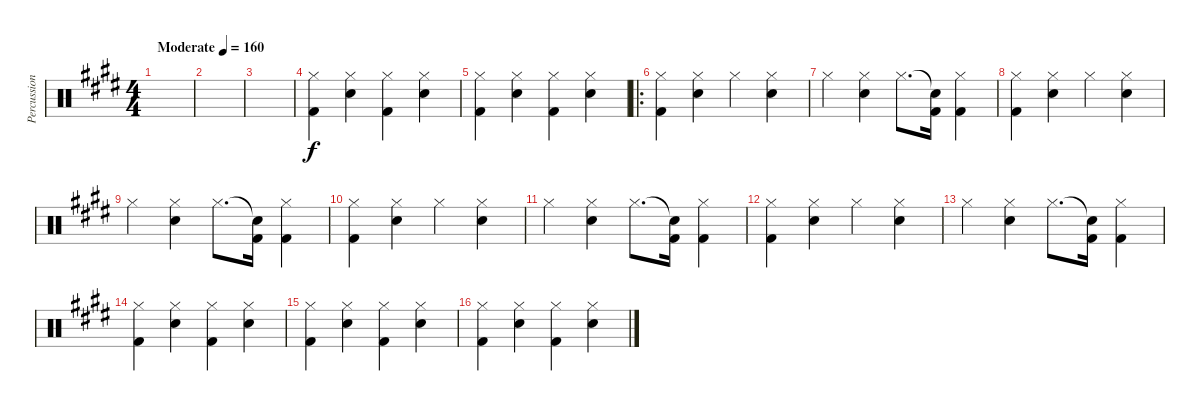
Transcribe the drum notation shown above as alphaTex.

\track ("Percussion" "Percussion") {instrument percussion}
\staff {score}
\articulation defaults
\ts (4 4)
\tempo (160 "Moderate")
\clef neutral
\ks e
|
|
|
("Hi-Hat (closed)" "Kick (hit) 2").4 ("Hi-Hat (closed)" "Snare (hit) 2").4 ("Hi-Hat (closed)" "Kick (hit) 2").4 ("Hi-Hat (closed)" "Snare (hit) 2").4 |
("Hi-Hat (closed)" "Kick (hit) 2").4 ("Hi-Hat (closed)" "Snare (hit) 2").4 ("Hi-Hat (closed)" "Kick (hit) 2").4 ("Hi-Hat (closed)" "Snare (hit) 2").4 |
\ro
("Hi-Hat (closed)" "Kick (hit) 2").4 ("Hi-Hat (closed)" "Snare (hit) 2").4 "Hi-Hat (closed)".4 ("Hi-Hat (closed)" "Snare (hit) 2").4 |
"Hi-Hat (closed)".4 ("Hi-Hat (closed)" "Snare (hit) 2").4 "Hi-Hat (closed)".8{d} ("Snare (hit)"{t} "Kick (hit) 2").16 ("Hi-Hat (closed)" "Kick (hit) 2").4 |
("Hi-Hat (closed)" "Kick (hit) 2").4 ("Hi-Hat (closed)" "Snare (hit) 2").4 "Hi-Hat (closed)".4 ("Hi-Hat (closed)" "Snare (hit) 2").4 |
"Hi-Hat (closed)".4 ("Hi-Hat (closed)" "Snare (hit) 2").4 "Hi-Hat (closed)".8{d} ("Snare (hit)"{t} "Kick (hit) 2").16 ("Hi-Hat (closed)" "Kick (hit) 2").4 |
("Hi-Hat (closed)" "Kick (hit) 2").4 ("Hi-Hat (closed)" "Snare (hit) 2").4 "Hi-Hat (closed)".4 ("Hi-Hat (closed)" "Snare (hit) 2").4 |
"Hi-Hat (closed)".4 ("Hi-Hat (closed)" "Snare (hit) 2").4 "Hi-Hat (closed)".8{d} ("Snare (hit)"{t} "Kick (hit) 2").16 ("Hi-Hat (closed)" "Kick (hit) 2").4 |
("Hi-Hat (closed)" "Kick (hit) 2").4 ("Hi-Hat (closed)" "Snare (hit) 2").4 "Hi-Hat (closed)".4 ("Hi-Hat (closed)" "Snare (hit) 2").4 |
"Hi-Hat (closed)".4 ("Hi-Hat (closed)" "Snare (hit) 2").4 "Hi-Hat (closed)".8{d} ("Snare (hit)"{t} "Kick (hit) 2").16 ("Hi-Hat (closed)" "Kick (hit) 2").4 |
("Hi-Hat (closed)" "Kick (hit) 2").4 ("Hi-Hat (closed)" "Snare (hit) 2").4 ("Hi-Hat (closed)" "Kick (hit) 2").4 ("Hi-Hat (closed)" "Snare (hit) 2").4 |
("Hi-Hat (closed)" "Kick (hit) 2").4 ("Hi-Hat (closed)" "Snare (hit) 2").4 ("Hi-Hat (closed)" "Kick (hit) 2").4 ("Hi-Hat (closed)" "Snare (hit) 2").4 |
("Hi-Hat (closed)" "Kick (hit) 2").4 ("Hi-Hat (closed)" "Snare (hit) 2").4 ("Hi-Hat (closed)" "Kick (hit) 2").4 ("Hi-Hat (closed)" "Snare (hit) 2").4
